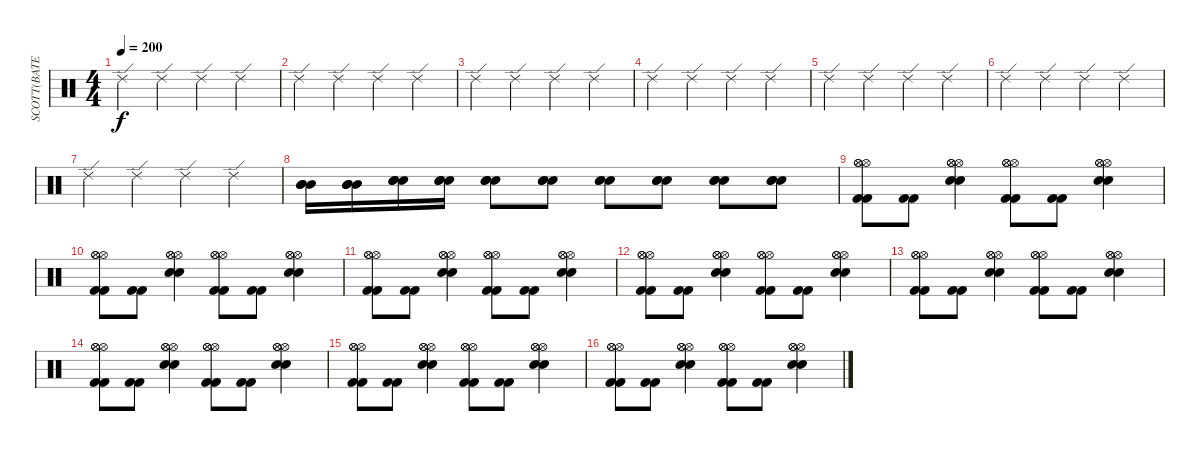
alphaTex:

\track ("SCOTT(BATERIA)" "SCOTT(BATE") {instrument percussion}
\staff {score}
\articulation defaults
\ts (4 4)
\tempo 200
\clef neutral
\ks c "Ride (edge) 2".4{dy f} "Ride (edge) 2".4 "Ride (edge) 2".4 "Ride (edge) 2".4
|
"Ride (edge) 2".4 "Ride (edge) 2".4 "Ride (edge) 2".4 "Ride (edge) 2".4 |
"Ride (edge) 2".4 "Ride (edge) 2".4 "Ride (edge) 2".4 "Ride (edge) 2".4 |
"Ride (edge) 2".4 "Ride (edge) 2".4 "Ride (edge) 2".4 "Ride (edge) 2".4 |
"Ride (edge) 2".4 "Ride (edge) 2".4 "Ride (edge) 2".4 "Ride (edge) 2".4 |
"Ride (edge) 2".4 "Ride (edge) 2".4 "Ride (edge) 2".4 "Ride (edge) 2".4 |
"Ride (edge) 2".4 "Ride (edge) 2".4 "Ride (edge) 2".4 "Ride (edge) 2".4 |
("Mid Tom (hit)" "Mid Tom (hit)" "Mid Tom (hit)").16 ("Mid Tom (hit)" "Mid Tom (hit)" "Mid Tom (hit)").16 ("Snare (hit) 2" "Snare (hit) 2" "Snare (hit) 2").16 ("Snare (hit) 2" "Snare (hit) 2" "Snare (hit) 2").16 ("Snare (hit) 2" "Snare (hit) 2" "Snare (hit) 2").8 ("Snare (hit) 2" "Snare (hit) 2" "Snare (hit) 2").8 ("Snare (hit) 2" "Snare (hit) 2" "Snare (hit) 2").8 ("Snare (hit) 2" "Snare (hit) 2" "Snare (hit) 2").8 ("Snare (hit) 2" "Snare (hit) 2" "Snare (hit) 2").8 ("Snare (hit) 2" "Snare (hit) 2" "Snare (hit) 2").8 |
("Kick (hit) 2" "Kick (hit) 2" "Hi-Hat (open)" "Hi-Hat (open)" "Hi-Hat (open)").8 ("Kick (hit) 2" "Kick (hit) 2").8 ("Snare (hit) 2" "Snare (hit) 2" "Hi-Hat (open)" "Hi-Hat (open)" "Hi-Hat (open)").4 ("Kick (hit) 2" "Kick (hit) 2" "Hi-Hat (open)" "Hi-Hat (open)" "Hi-Hat (open)").8 ("Kick (hit) 2" "Kick (hit) 2").8 ("Snare (hit) 2" "Snare (hit) 2" "Hi-Hat (open)" "Hi-Hat (open)" "Hi-Hat (open)").4 |
("Kick (hit) 2" "Kick (hit) 2" "Hi-Hat (open)" "Hi-Hat (open)" "Hi-Hat (open)").8 ("Kick (hit) 2" "Kick (hit) 2").8 ("Snare (hit) 2" "Snare (hit) 2" "Hi-Hat (open)" "Hi-Hat (open)" "Hi-Hat (open)").4 ("Kick (hit) 2" "Kick (hit) 2" "Hi-Hat (open)" "Hi-Hat (open)" "Hi-Hat (open)").8 ("Kick (hit) 2" "Kick (hit) 2").8 ("Snare (hit) 2" "Snare (hit) 2" "Hi-Hat (open)" "Hi-Hat (open)" "Hi-Hat (open)").4 |
("Kick (hit) 2" "Kick (hit) 2" "Hi-Hat (open)" "Hi-Hat (open)" "Hi-Hat (open)").8 ("Kick (hit) 2" "Kick (hit) 2").8 ("Snare (hit) 2" "Snare (hit) 2" "Hi-Hat (open)" "Hi-Hat (open)" "Hi-Hat (open)").4 ("Kick (hit) 2" "Kick (hit) 2" "Hi-Hat (open)" "Hi-Hat (open)" "Hi-Hat (open)").8 ("Kick (hit) 2" "Kick (hit) 2").8 ("Snare (hit) 2" "Snare (hit) 2" "Hi-Hat (open)" "Hi-Hat (open)" "Hi-Hat (open)").4 |
("Kick (hit) 2" "Kick (hit) 2" "Hi-Hat (open)" "Hi-Hat (open)" "Hi-Hat (open)").8 ("Kick (hit) 2" "Kick (hit) 2").8 ("Snare (hit) 2" "Snare (hit) 2" "Hi-Hat (open)" "Hi-Hat (open)" "Hi-Hat (open)").4 ("Kick (hit) 2" "Kick (hit) 2" "Hi-Hat (open)" "Hi-Hat (open)" "Hi-Hat (open)").8 ("Kick (hit) 2" "Kick (hit) 2").8 ("Snare (hit) 2" "Snare (hit) 2" "Hi-Hat (open)" "Hi-Hat (open)" "Hi-Hat (open)").4 |
("Kick (hit) 2" "Kick (hit) 2" "Hi-Hat (open)" "Hi-Hat (open)" "Hi-Hat (open)").8 ("Kick (hit) 2" "Kick (hit) 2").8 ("Snare (hit) 2" "Snare (hit) 2" "Hi-Hat (open)" "Hi-Hat (open)" "Hi-Hat (open)").4 ("Kick (hit) 2" "Kick (hit) 2" "Hi-Hat (open)" "Hi-Hat (open)" "Hi-Hat (open)").8 ("Kick (hit) 2" "Kick (hit) 2").8 ("Snare (hit) 2" "Snare (hit) 2" "Hi-Hat (open)" "Hi-Hat (open)" "Hi-Hat (open)").4 |
("Kick (hit) 2" "Kick (hit) 2" "Hi-Hat (open)" "Hi-Hat (open)" "Hi-Hat (open)").8 ("Kick (hit) 2" "Kick (hit) 2").8 ("Snare (hit) 2" "Snare (hit) 2" "Hi-Hat (open)" "Hi-Hat (open)" "Hi-Hat (open)").4 ("Kick (hit) 2" "Kick (hit) 2" "Hi-Hat (open)" "Hi-Hat (open)" "Hi-Hat (open)").8 ("Kick (hit) 2" "Kick (hit) 2").8 ("Snare (hit) 2" "Snare (hit) 2" "Hi-Hat (open)" "Hi-Hat (open)" "Hi-Hat (open)").4 |
("Kick (hit) 2" "Kick (hit) 2" "Hi-Hat (open)" "Hi-Hat (open)" "Hi-Hat (open)").8 ("Kick (hit) 2" "Kick (hit) 2").8 ("Snare (hit) 2" "Snare (hit) 2" "Hi-Hat (open)" "Hi-Hat (open)" "Hi-Hat (open)").4 ("Kick (hit) 2" "Kick (hit) 2" "Hi-Hat (open)" "Hi-Hat (open)" "Hi-Hat (open)").8 ("Kick (hit) 2" "Kick (hit) 2").8 ("Snare (hit) 2" "Snare (hit) 2" "Hi-Hat (open)" "Hi-Hat (open)" "Hi-Hat (open)").4 |
("Kick (hit) 2" "Kick (hit) 2" "Hi-Hat (open)" "Hi-Hat (open)" "Hi-Hat (open)").8 ("Kick (hit) 2" "Kick (hit) 2").8 ("Snare (hit) 2" "Snare (hit) 2" "Hi-Hat (open)" "Hi-Hat (open)" "Hi-Hat (open)").4 ("Kick (hit) 2" "Kick (hit) 2" "Hi-Hat (open)" "Hi-Hat (open)" "Hi-Hat (open)").8 ("Kick (hit) 2" "Kick (hit) 2").8 ("Snare (hit) 2" "Snare (hit) 2" "Hi-Hat (open)" "Hi-Hat (open)" "Hi-Hat (open)").4
